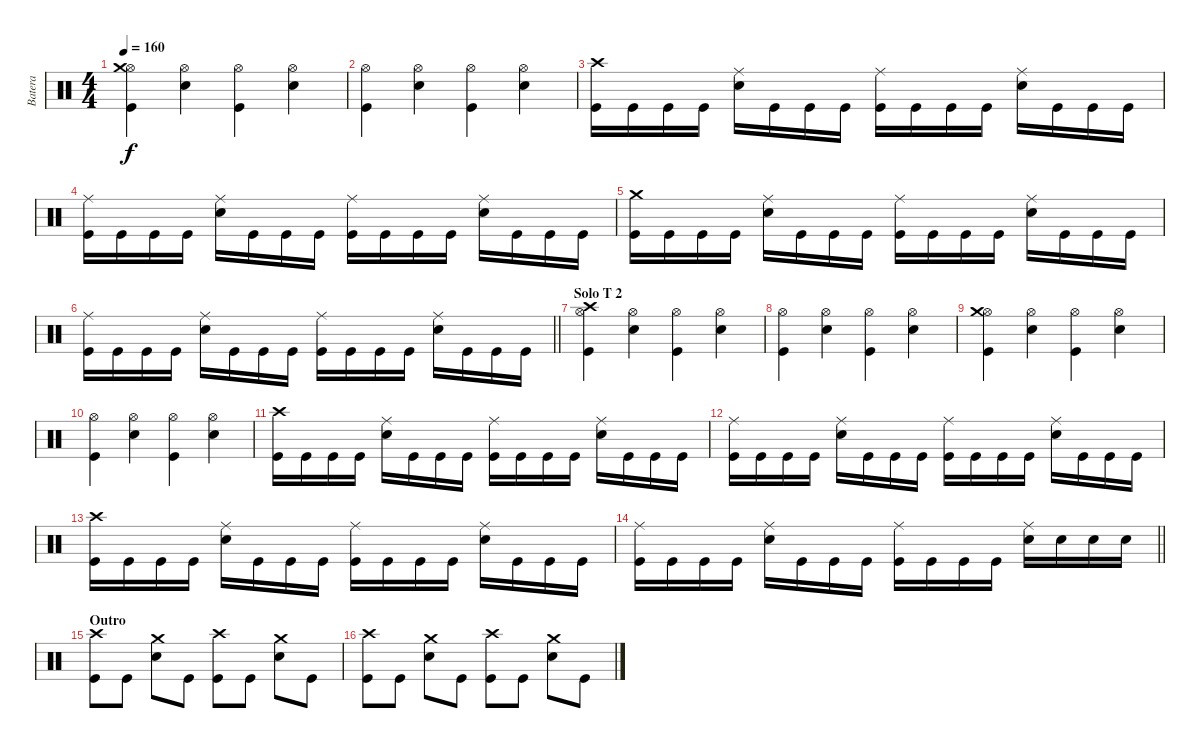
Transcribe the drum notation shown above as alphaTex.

\track ("Batera" "Batera") {instrument percussion}
\staff {score}
\articulation defaults
\ts (4 4)
\tempo 160
\clef neutral
\ks c
("Hi-Hat (open)" "Kick (hit)" "Crash medium (hit)").4{dy f} ("Hi-Hat (open)" "Snare (hit) 2").4 ("Hi-Hat (open)" "Kick (hit)").4 ("Hi-Hat (open)" "Snare (hit) 2").4 |
("Hi-Hat (open)" "Kick (hit)").4 ("Hi-Hat (open)" "Snare (hit) 2").4 ("Hi-Hat (open)" "Kick (hit)").4 ("Hi-Hat (open)" "Snare (hit) 2").4 |
("Kick (hit)" "Crash high (hit)").16 "Kick (hit)".16 "Kick (hit)".16 "Kick (hit)".16 ("Snare (hit) 2" "Ride (middle)").16 "Kick (hit)".16 "Kick (hit)".16 "Kick (hit)".16 ("Kick (hit)" "Ride (middle)").16 "Kick (hit)".16 "Kick (hit)".16 "Kick (hit)".16 ("Snare (hit) 2" "Ride (middle)").16 "Kick (hit)".16 "Kick (hit)".16 "Kick (hit)".16 |
("Kick (hit)" "Ride (middle)").16 "Kick (hit)".16 "Kick (hit)".16 "Kick (hit)".16 ("Snare (hit) 2" "Ride (middle)").16 "Kick (hit)".16 "Kick (hit)".16 "Kick (hit)".16 ("Kick (hit)" "Ride (middle)").16 "Kick (hit)".16 "Kick (hit)".16 "Kick (hit)".16 ("Snare (hit) 2" "Ride (middle)").16 "Kick (hit)".16 "Kick (hit)".16 "Kick (hit)".16 |
("Kick (hit)" "Crash medium (hit)").16 "Kick (hit)".16 "Kick (hit)".16 "Kick (hit)".16 ("Snare (hit) 2" "Ride (middle)").16 "Kick (hit)".16 "Kick (hit)".16 "Kick (hit)".16 ("Kick (hit)" "Ride (middle)").16 "Kick (hit)".16 "Kick (hit)".16 "Kick (hit)".16 ("Snare (hit) 2" "Ride (middle)").16 "Kick (hit)".16 "Kick (hit)".16 "Kick (hit)".16 |
\barLineRight lightlight
("Kick (hit)" "Ride (middle)").16 "Kick (hit)".16 "Kick (hit)".16 "Kick (hit)".16 ("Snare (hit) 2" "Ride (middle)").16 "Kick (hit)".16 "Kick (hit)".16 "Kick (hit)".16 ("Kick (hit)" "Ride (middle)").16 "Kick (hit)".16 "Kick (hit)".16 "Kick (hit)".16 ("Snare (hit) 2" "Ride (middle)").16 "Kick (hit)".16 "Kick (hit)".16 "Kick (hit)".16 |
\section ("" "Solo T 2")
("Hi-Hat (open)" "Kick (hit)" "Crash high (hit)").4 ("Hi-Hat (open)" "Snare (hit) 2").4 ("Hi-Hat (open)" "Kick (hit)").4 ("Hi-Hat (open)" "Snare (hit) 2").4 |
("Hi-Hat (open)" "Kick (hit)").4 ("Hi-Hat (open)" "Snare (hit) 2").4 ("Hi-Hat (open)" "Kick (hit)").4 ("Hi-Hat (open)" "Snare (hit) 2").4 |
("Hi-Hat (open)" "Kick (hit)" "Crash medium (hit)").4 ("Hi-Hat (open)" "Snare (hit) 2").4 ("Hi-Hat (open)" "Kick (hit)").4 ("Hi-Hat (open)" "Snare (hit) 2").4 |
("Hi-Hat (open)" "Kick (hit)").4 ("Hi-Hat (open)" "Snare (hit) 2").4 ("Hi-Hat (open)" "Kick (hit)").4 ("Hi-Hat (open)" "Snare (hit) 2").4 |
("Kick (hit)" "Crash high (hit)").16 "Kick (hit)".16 "Kick (hit)".16 "Kick (hit)".16 ("Snare (hit) 2" "Ride (middle)").16 "Kick (hit)".16 "Kick (hit)".16 "Kick (hit)".16 ("Kick (hit)" "Ride (middle)").16 "Kick (hit)".16 "Kick (hit)".16 "Kick (hit)".16 ("Snare (hit) 2" "Ride (middle)").16 "Kick (hit)".16 "Kick (hit)".16 "Kick (hit)".16 |
("Kick (hit)" "Ride (middle)").16 "Kick (hit)".16 "Kick (hit)".16 "Kick (hit)".16 ("Snare (hit) 2" "Ride (middle)").16 "Kick (hit)".16 "Kick (hit)".16 "Kick (hit)".16 ("Kick (hit)" "Ride (middle)").16 "Kick (hit)".16 "Kick (hit)".16 "Kick (hit)".16 ("Snare (hit) 2" "Ride (middle)").16 "Kick (hit)".16 "Kick (hit)".16 "Kick (hit)".16 |
("Kick (hit)" "Crash high (hit)").16 "Kick (hit)".16 "Kick (hit)".16 "Kick (hit)".16 ("Snare (hit) 2" "Ride (middle)").16 "Kick (hit)".16 "Kick (hit)".16 "Kick (hit)".16 ("Kick (hit)" "Ride (middle)").16 "Kick (hit)".16 "Kick (hit)".16 "Kick (hit)".16 ("Snare (hit) 2" "Ride (middle)").16 "Kick (hit)".16 "Kick (hit)".16 "Kick (hit)".16 |
\barLineRight lightlight
("Kick (hit)" "Ride (middle)").16 "Kick (hit)".16 "Kick (hit)".16 "Kick (hit)".16 ("Snare (hit) 2" "Ride (middle)").16 "Kick (hit)".16 "Kick (hit)".16 "Kick (hit)".16 ("Kick (hit)" "Ride (middle)").16 "Kick (hit)".16 "Kick (hit)".16 "Kick (hit)".16 ("Snare (hit) 2" "Ride (middle)").16 "Snare (hit) 2".16 "Snare (hit) 2".16 "Snare (hit) 2".16 |
\section ("" "Outro")
("Kick (hit)" "Crash high (hit)").8 "Kick (hit)".8 ("Snare (hit) 2" "Crash medium (hit)").8 "Kick (hit)".8 ("Kick (hit)" "Crash high (hit)").8 "Kick (hit)".8 ("Snare (hit) 2" "Crash medium (hit)").8 "Kick (hit)".8 |
("Kick (hit)" "Crash high (hit)").8 "Kick (hit)".8 ("Snare (hit) 2" "Crash medium (hit)").8 "Kick (hit)".8 ("Kick (hit)" "Crash high (hit)").8 "Kick (hit)".8 ("Snare (hit) 2" "Crash medium (hit)").8 "Kick (hit)".8
